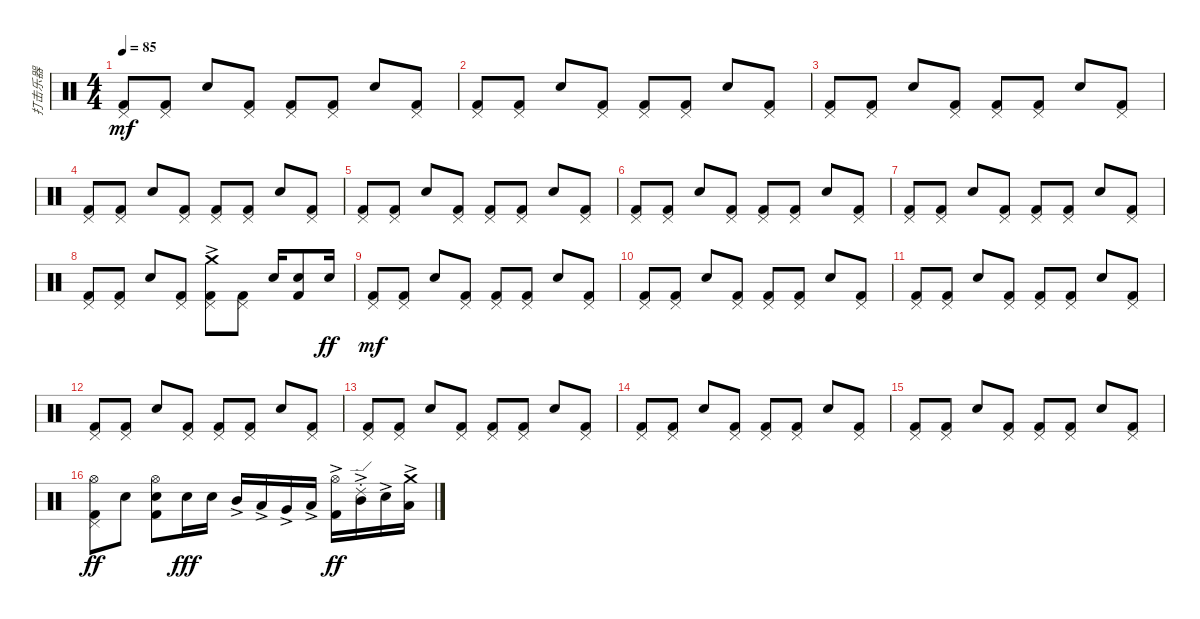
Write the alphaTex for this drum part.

\track ("打击乐器" "打击乐器") {instrument percussion}
\staff {score}
\articulation defaults
\ts (4 4)
\tempo 85
\clef neutral
\ks c
("Pedal Hi-Hat (hit)" "Kick (hit) 2").8{dy mf volume 13} ("Pedal Hi-Hat (hit)" "Kick (hit) 2").8 "Electric Snare (hit)".8 ("Pedal Hi-Hat (hit)" "Kick (hit) 2").8 ("Pedal Hi-Hat (hit)" "Kick (hit) 2").8 ("Pedal Hi-Hat (hit)" "Kick (hit) 2").8 "Electric Snare (hit)".8 ("Pedal Hi-Hat (hit)" "Kick (hit) 2").8 |
("Pedal Hi-Hat (hit)" "Kick (hit) 2").8{volume 13} ("Pedal Hi-Hat (hit)" "Kick (hit) 2").8 "Electric Snare (hit)".8 ("Pedal Hi-Hat (hit)" "Kick (hit) 2").8 ("Pedal Hi-Hat (hit)" "Kick (hit) 2").8 ("Pedal Hi-Hat (hit)" "Kick (hit) 2").8 "Electric Snare (hit)".8 ("Pedal Hi-Hat (hit)" "Kick (hit) 2").8 |
("Pedal Hi-Hat (hit)" "Kick (hit) 2").8{volume 13} ("Pedal Hi-Hat (hit)" "Kick (hit) 2").8 "Electric Snare (hit)".8 ("Pedal Hi-Hat (hit)" "Kick (hit) 2").8 ("Pedal Hi-Hat (hit)" "Kick (hit) 2").8 ("Pedal Hi-Hat (hit)" "Kick (hit) 2").8 "Electric Snare (hit)".8 ("Pedal Hi-Hat (hit)" "Kick (hit) 2").8 |
("Pedal Hi-Hat (hit)" "Kick (hit) 2").8{volume 13} ("Pedal Hi-Hat (hit)" "Kick (hit) 2").8 "Electric Snare (hit)".8 ("Pedal Hi-Hat (hit)" "Kick (hit) 2").8 ("Pedal Hi-Hat (hit)" "Kick (hit) 2").8 ("Pedal Hi-Hat (hit)" "Kick (hit) 2").8 "Electric Snare (hit)".8 ("Pedal Hi-Hat (hit)" "Kick (hit) 2").8 |
("Pedal Hi-Hat (hit)" "Kick (hit) 2").8{volume 13} ("Pedal Hi-Hat (hit)" "Kick (hit) 2").8 "Electric Snare (hit)".8 ("Pedal Hi-Hat (hit)" "Kick (hit) 2").8 ("Pedal Hi-Hat (hit)" "Kick (hit) 2").8 ("Pedal Hi-Hat (hit)" "Kick (hit) 2").8 "Electric Snare (hit)".8 ("Pedal Hi-Hat (hit)" "Kick (hit) 2").8 |
("Pedal Hi-Hat (hit)" "Kick (hit) 2").8{volume 13} ("Pedal Hi-Hat (hit)" "Kick (hit) 2").8 "Electric Snare (hit)".8 ("Pedal Hi-Hat (hit)" "Kick (hit) 2").8 ("Pedal Hi-Hat (hit)" "Kick (hit) 2").8 ("Pedal Hi-Hat (hit)" "Kick (hit) 2").8 "Electric Snare (hit)".8 ("Pedal Hi-Hat (hit)" "Kick (hit) 2").8 |
("Pedal Hi-Hat (hit)" "Kick (hit) 2").8{volume 13} ("Pedal Hi-Hat (hit)" "Kick (hit) 2").8 "Electric Snare (hit)".8 ("Pedal Hi-Hat (hit)" "Kick (hit) 2").8 ("Pedal Hi-Hat (hit)" "Kick (hit) 2").8 ("Pedal Hi-Hat (hit)" "Kick (hit) 2").8 "Electric Snare (hit)".8 ("Pedal Hi-Hat (hit)" "Kick (hit) 2").8 |
("Pedal Hi-Hat (hit)" "Kick (hit) 2").8{volume 13} ("Pedal Hi-Hat (hit)" "Kick (hit) 2").8 "Electric Snare (hit)".8 ("Pedal Hi-Hat (hit)" "Kick (hit) 2").8 ("Crash medium (hit)"{ac} "Pedal Hi-Hat (hit)" "Kick (hit) 2").8 ("Pedal Hi-Hat (hit)" "Kick (hit) 2").8 "Electric Snare (hit)".16 ("Electric Snare (hit)" "Kick (hit) 2").8 "Electric Snare (hit)".16{dy ff} |
("Pedal Hi-Hat (hit)" "Kick (hit) 2").8{dy mf volume 16} ("Pedal Hi-Hat (hit)" "Kick (hit) 2").8 "Electric Snare (hit)".8 ("Pedal Hi-Hat (hit)" "Kick (hit) 2").8 ("Pedal Hi-Hat (hit)" "Kick (hit) 2").8 ("Pedal Hi-Hat (hit)" "Kick (hit) 2").8 "Electric Snare (hit)".8 ("Pedal Hi-Hat (hit)" "Kick (hit) 2").8 |
("Pedal Hi-Hat (hit)" "Kick (hit) 2").8{volume 13} ("Pedal Hi-Hat (hit)" "Kick (hit) 2").8 "Electric Snare (hit)".8 ("Pedal Hi-Hat (hit)" "Kick (hit) 2").8 ("Pedal Hi-Hat (hit)" "Kick (hit) 2").8 ("Pedal Hi-Hat (hit)" "Kick (hit) 2").8 "Electric Snare (hit)".8 ("Pedal Hi-Hat (hit)" "Kick (hit) 2").8 |
("Pedal Hi-Hat (hit)" "Kick (hit) 2").8{volume 13} ("Pedal Hi-Hat (hit)" "Kick (hit) 2").8 "Electric Snare (hit)".8 ("Pedal Hi-Hat (hit)" "Kick (hit) 2").8 ("Pedal Hi-Hat (hit)" "Kick (hit) 2").8 ("Pedal Hi-Hat (hit)" "Kick (hit) 2").8 "Electric Snare (hit)".8 ("Pedal Hi-Hat (hit)" "Kick (hit) 2").8 |
("Pedal Hi-Hat (hit)" "Kick (hit) 2").8{volume 13} ("Pedal Hi-Hat (hit)" "Kick (hit) 2").8 "Electric Snare (hit)".8 ("Pedal Hi-Hat (hit)" "Kick (hit) 2").8 ("Pedal Hi-Hat (hit)" "Kick (hit) 2").8 ("Pedal Hi-Hat (hit)" "Kick (hit) 2").8 "Electric Snare (hit)".8 ("Pedal Hi-Hat (hit)" "Kick (hit) 2").8 |
("Pedal Hi-Hat (hit)" "Kick (hit) 2").8{volume 13} ("Pedal Hi-Hat (hit)" "Kick (hit) 2").8 "Electric Snare (hit)".8 ("Pedal Hi-Hat (hit)" "Kick (hit) 2").8 ("Pedal Hi-Hat (hit)" "Kick (hit) 2").8 ("Pedal Hi-Hat (hit)" "Kick (hit) 2").8 "Electric Snare (hit)".8 ("Pedal Hi-Hat (hit)" "Kick (hit) 2").8 |
("Pedal Hi-Hat (hit)" "Kick (hit) 2").8{volume 13} ("Pedal Hi-Hat (hit)" "Kick (hit) 2").8 "Electric Snare (hit)".8 ("Pedal Hi-Hat (hit)" "Kick (hit) 2").8 ("Pedal Hi-Hat (hit)" "Kick (hit) 2").8 ("Pedal Hi-Hat (hit)" "Kick (hit) 2").8 "Electric Snare (hit)".8 ("Pedal Hi-Hat (hit)" "Kick (hit) 2").8 |
("Pedal Hi-Hat (hit)" "Kick (hit) 2").8{volume 13} ("Pedal Hi-Hat (hit)" "Kick (hit) 2").8 "Electric Snare (hit)".8 ("Pedal Hi-Hat (hit)" "Kick (hit) 2").8 ("Pedal Hi-Hat (hit)" "Kick (hit) 2").8 ("Pedal Hi-Hat (hit)" "Kick (hit) 2").8 "Electric Snare (hit)".8 ("Pedal Hi-Hat (hit)" "Kick (hit) 2").8 |
("Hi-Hat (open)" "Pedal Hi-Hat (hit)" "Kick (hit) 2").8{dy ff} "Electric Snare (hit)".8 ("Hi-Hat (open)" "Electric Snare (hit)" "Kick (hit) 2").8 "Electric Snare (hit)".16{dy fff} "Electric Snare (hit)".16 "Mid Tom (hit)"{ac}.16 "Low Tom (hit)"{ac}.16 "Very Low Tom (hit)"{ac}.16 "Low Floor Tom (hit)"{ac}.16 ("Hi-Hat (open)"{ac} "Kick (hit) 2"{ac}).16{dy ff} ("Ride (edge) 2"{ac st} "Mid Tom (hit)"{ac}).16 "Electric Snare (hit)"{ac}.16 ("Crash medium (hit)"{ac} "Low Tom (hit)"{ac}).16
